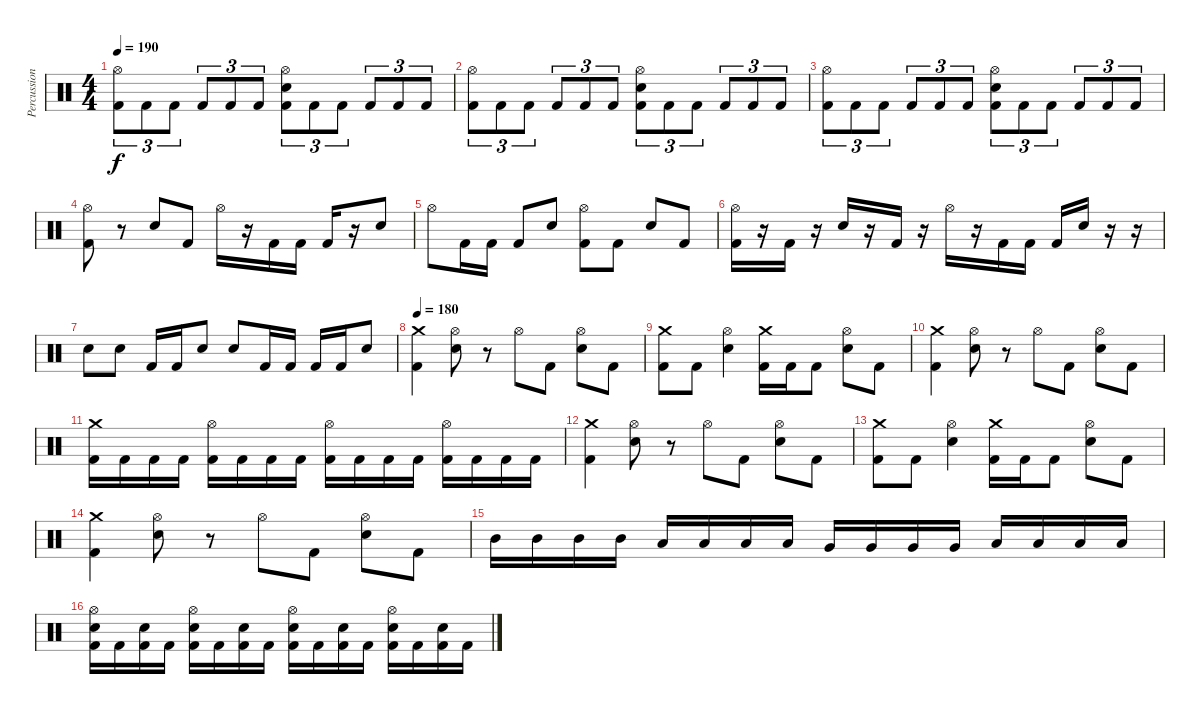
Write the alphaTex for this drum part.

\track ("Percussion" "Percussion") {instrument percussion}
\staff {score}
\articulation defaults
\ts (4 4)
\tempo 190
\clef neutral
\ks c
("Hi-Hat (open)" "Kick (hit) 2").8{tu (3 2) dy f} "Kick (hit) 2".8{tu (3 2)} "Kick (hit) 2".8{tu (3 2)} "Kick (hit) 2".8{tu (3 2)} "Kick (hit) 2".8{tu (3 2)} "Kick (hit) 2".8{tu (3 2)} ("Hi-Hat (open)" "Snare (hit) 2" "Kick (hit) 2").8{tu (3 2)} "Kick (hit) 2".8{tu (3 2)} "Kick (hit) 2".8{tu (3 2)} "Kick (hit) 2".8{tu (3 2)} "Kick (hit) 2".8{tu (3 2)} "Kick (hit) 2".8{tu (3 2)} |
("Hi-Hat (open)" "Kick (hit) 2").8{tu (3 2)} "Kick (hit) 2".8{tu (3 2)} "Kick (hit) 2".8{tu (3 2)} "Kick (hit) 2".8{tu (3 2)} "Kick (hit) 2".8{tu (3 2)} "Kick (hit) 2".8{tu (3 2)} ("Hi-Hat (open)" "Snare (hit) 2" "Kick (hit) 2").8{tu (3 2)} "Kick (hit) 2".8{tu (3 2)} "Kick (hit) 2".8{tu (3 2)} "Kick (hit) 2".8{tu (3 2)} "Kick (hit) 2".8{tu (3 2)} "Kick (hit) 2".8{tu (3 2)} |
("Hi-Hat (open)" "Kick (hit) 2").8{tu (3 2)} "Kick (hit) 2".8{tu (3 2)} "Kick (hit) 2".8{tu (3 2)} "Kick (hit) 2".8{tu (3 2)} "Kick (hit) 2".8{tu (3 2)} "Kick (hit) 2".8{tu (3 2)} ("Hi-Hat (open)" "Snare (hit) 2" "Kick (hit) 2").8{tu (3 2)} "Kick (hit) 2".8{tu (3 2)} "Kick (hit) 2".8{tu (3 2)} "Kick (hit) 2".8{tu (3 2)} "Kick (hit) 2".8{tu (3 2)} "Kick (hit) 2".8{tu (3 2)} |
("Hi-Hat (open)" "Kick (hit) 2").8 r.8 "Snare (hit) 2".8 "Kick (hit) 2".8 "Hi-Hat (open)".16 r.16 "Kick (hit) 2".16 "Kick (hit) 2".16 "Kick (hit) 2".16 r.16 "Snare (hit) 2".8 |
"Hi-Hat (open)".8 "Kick (hit) 2".16 "Kick (hit) 2".16 "Kick (hit) 2".8 "Snare (hit) 2".8 ("Hi-Hat (open)" "Kick (hit) 2").8 "Kick (hit) 2".8 "Snare (hit) 2".8 "Kick (hit) 2".8 |
("Hi-Hat (open)" "Kick (hit) 2").16 r.16 "Kick (hit) 2".16 r.16 "Snare (hit) 2".16 r.16 "Kick (hit) 2".16 r.16 "Hi-Hat (open)".16 r.16 "Kick (hit) 2".16 "Kick (hit) 2".16 "Kick (hit) 2".16 "Snare (hit) 2".16 r.16 r.16 |
"Snare (hit) 2".8 "Snare (hit) 2".8 "Kick (hit) 2".16 "Kick (hit) 2".16 "Snare (hit) 2".8 "Snare (hit) 2".8 "Kick (hit) 2".16 "Kick (hit) 2".16 "Kick (hit) 2".16 "Kick (hit) 2".16 "Snare (hit) 2".8 |
\tempo 180
("Crash medium (hit)" "Kick (hit) 2").4 ("Hi-Hat (open)" "Snare (hit) 2").8 r.8 "Hi-Hat (open)".8 "Kick (hit) 2".8 ("Hi-Hat (open)" "Snare (hit) 2").8 "Kick (hit) 2".8 |
("Crash medium (hit)" "Kick (hit) 2").8 "Kick (hit) 2".8 ("Hi-Hat (open)" "Snare (hit) 2").4 ("Crash medium (hit)" "Kick (hit) 2").16 "Kick (hit) 2".16 "Kick (hit) 2".8 ("Hi-Hat (open)" "Snare (hit) 2").8 "Kick (hit) 2".8 |
("Crash medium (hit)" "Kick (hit) 2").4 ("Hi-Hat (open)" "Snare (hit) 2").8 r.8 "Hi-Hat (open)".8 "Kick (hit) 2".8 ("Hi-Hat (open)" "Snare (hit) 2").8 "Kick (hit) 2".8 |
("Crash medium (hit)" "Kick (hit) 2").16 "Kick (hit) 2".16 "Kick (hit) 2".16 "Kick (hit) 2".16 ("Hi-Hat (open)" "Kick (hit) 2").16 "Kick (hit) 2".16 "Kick (hit) 2".16 "Kick (hit) 2".16 ("Hi-Hat (open)" "Kick (hit) 2").16 "Kick (hit) 2".16 "Kick (hit) 2".16 "Kick (hit) 2".16 ("Hi-Hat (open)" "Kick (hit) 2").16 "Kick (hit) 2".16 "Kick (hit) 2".16 "Kick (hit) 2".16 |
("Crash medium (hit)" "Kick (hit) 2").4 ("Hi-Hat (open)" "Snare (hit) 2").8 r.8 "Hi-Hat (open)".8 "Kick (hit) 2".8 ("Hi-Hat (open)" "Snare (hit) 2").8 "Kick (hit) 2".8 |
("Crash medium (hit)" "Kick (hit) 2").8 "Kick (hit) 2".8 ("Hi-Hat (open)" "Snare (hit) 2").4 ("Crash medium (hit)" "Kick (hit) 2").16 "Kick (hit) 2".16 "Kick (hit) 2".8 ("Hi-Hat (open)" "Snare (hit) 2").8 "Kick (hit) 2".8 |
("Crash medium (hit)" "Kick (hit) 2").4 ("Hi-Hat (open)" "Snare (hit) 2").8 r.8 "Hi-Hat (open)".8 "Kick (hit) 2".8 ("Hi-Hat (open)" "Snare (hit) 2").8 "Kick (hit) 2".8 |
"Mid Tom (hit)".16 "Mid Tom (hit)".16 "Mid Tom (hit)".16 "Mid Tom (hit)".16 "Low Tom (hit)".16 "Low Tom (hit)".16 "Low Tom (hit)".16 "Low Tom (hit)".16 "Very Low Tom (hit)".16 "Very Low Tom (hit)".16 "Very Low Tom (hit)".16 "Very Low Tom (hit)".16 "Low Floor Tom (hit)".16 "Low Floor Tom (hit)".16 "Low Floor Tom (hit)".16 "Low Floor Tom (hit)".16 |
("Hi-Hat (open)" "Snare (hit) 2" "Kick (hit) 2").16 "Kick (hit) 2".16 ("Snare (hit) 2" "Kick (hit) 2").16 "Kick (hit) 2".16 ("Hi-Hat (open)" "Snare (hit) 2" "Kick (hit) 2").16 "Kick (hit) 2".16 ("Snare (hit) 2" "Kick (hit) 2").16 "Kick (hit) 2".16 ("Hi-Hat (open)" "Snare (hit) 2" "Kick (hit) 2").16 "Kick (hit) 2".16 ("Snare (hit) 2" "Kick (hit) 2").16 "Kick (hit) 2".16 ("Hi-Hat (open)" "Snare (hit) 2" "Kick (hit) 2").16 "Kick (hit) 2".16 ("Snare (hit) 2" "Kick (hit) 2").16 "Kick (hit) 2".16
